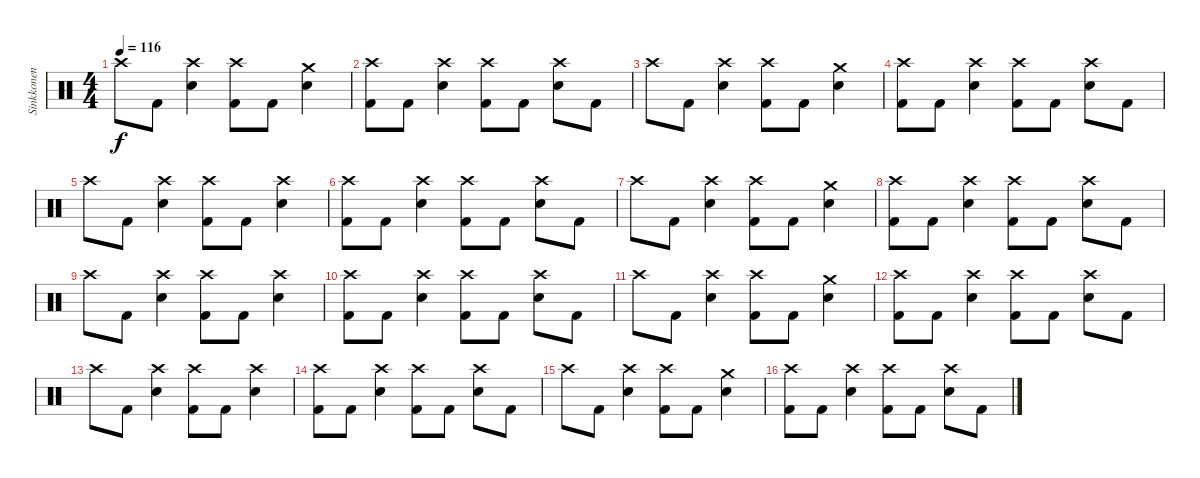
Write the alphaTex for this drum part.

\track ("Sinkkonen" "Sinkkonen") {instrument percussion}
\staff {score}
\articulation defaults
\ts (4 4)
\tempo 116
\clef neutral
\ks c "Crash high (hit)".8{dy f} "Kick (hit) 2".8
("Crash high (hit)" "Snare (hit) 2").4 ("Kick (hit) 2" "Crash high (hit)").8 "Kick (hit) 2".8 ("Crash medium (hit)" "Snare (hit) 2").4 |
("Kick (hit) 2" "Crash high (hit)").8 "Kick (hit) 2".8 ("Crash high (hit)" "Snare (hit) 2").4 ("Kick (hit) 2" "Crash high (hit)").8 "Kick (hit) 2".8 ("Crash high (hit)" "Snare (hit) 2").8 "Kick (hit) 2".8 |
"Crash high (hit)".8 "Kick (hit) 2".8 ("Crash high (hit)" "Snare (hit) 2").4 ("Kick (hit) 2" "Crash high (hit)").8 "Kick (hit) 2".8 ("Crash medium (hit)" "Snare (hit) 2").4 |
("Kick (hit) 2" "Crash high (hit)").8 "Kick (hit) 2".8 ("Crash high (hit)" "Snare (hit) 2").4 ("Kick (hit) 2" "Crash high (hit)").8 "Kick (hit) 2".8 ("Crash high (hit)" "Snare (hit) 2").8 "Kick (hit) 2".8 |
"Crash high (hit)".8 "Kick (hit) 2".8 ("Crash high (hit)" "Snare (hit) 2").4 ("Kick (hit) 2" "Crash high (hit)").8 "Kick (hit) 2".8 ("Crash high (hit)" "Snare (hit) 2").4 |
("Kick (hit) 2" "Crash high (hit)").8 "Kick (hit) 2".8 ("Crash high (hit)" "Snare (hit) 2").4 ("Kick (hit) 2" "Crash high (hit)").8 "Kick (hit) 2".8 ("Crash high (hit)" "Snare (hit) 2").8 "Kick (hit) 2".8 |
"Crash high (hit)".8 "Kick (hit) 2".8 ("Crash high (hit)" "Snare (hit) 2").4 ("Kick (hit) 2" "Crash high (hit)").8 "Kick (hit) 2".8 ("Crash medium (hit)" "Snare (hit) 2").4 |
("Kick (hit) 2" "Crash high (hit)").8 "Kick (hit) 2".8 ("Crash high (hit)" "Snare (hit) 2").4 ("Kick (hit) 2" "Crash high (hit)").8 "Kick (hit) 2".8 ("Crash high (hit)" "Snare (hit) 2").8 "Kick (hit) 2".8 |
"Crash high (hit)".8 "Kick (hit) 2".8 ("Crash high (hit)" "Snare (hit) 2").4 ("Kick (hit) 2" "Crash high (hit)").8 "Kick (hit) 2".8 ("Crash high (hit)" "Snare (hit) 2").4 |
("Kick (hit) 2" "Crash high (hit)").8 "Kick (hit) 2".8 ("Crash high (hit)" "Snare (hit) 2").4 ("Kick (hit) 2" "Crash high (hit)").8 "Kick (hit) 2".8 ("Crash high (hit)" "Snare (hit) 2").8 "Kick (hit) 2".8 |
"Crash high (hit)".8 "Kick (hit) 2".8 ("Crash high (hit)" "Snare (hit) 2").4 ("Kick (hit) 2" "Crash high (hit)").8 "Kick (hit) 2".8 ("Crash medium (hit)" "Snare (hit) 2").4 |
("Kick (hit) 2" "Crash high (hit)").8 "Kick (hit) 2".8 ("Crash high (hit)" "Snare (hit) 2").4 ("Kick (hit) 2" "Crash high (hit)").8 "Kick (hit) 2".8 ("Crash high (hit)" "Snare (hit) 2").8 "Kick (hit) 2".8 |
"Crash high (hit)".8 "Kick (hit) 2".8 ("Crash high (hit)" "Snare (hit) 2").4 ("Kick (hit) 2" "Crash high (hit)").8 "Kick (hit) 2".8 ("Crash high (hit)" "Snare (hit) 2").4 |
("Kick (hit) 2" "Crash high (hit)").8 "Kick (hit) 2".8 ("Crash high (hit)" "Snare (hit) 2").4 ("Kick (hit) 2" "Crash high (hit)").8 "Kick (hit) 2".8 ("Crash high (hit)" "Snare (hit) 2").8 "Kick (hit) 2".8 |
"Crash high (hit)".8 "Kick (hit) 2".8 ("Crash high (hit)" "Snare (hit) 2").4 ("Kick (hit) 2" "Crash high (hit)").8 "Kick (hit) 2".8 ("Crash medium (hit)" "Snare (hit) 2").4 |
("Kick (hit) 2" "Crash high (hit)").8 "Kick (hit) 2".8 ("Crash high (hit)" "Snare (hit) 2").4 ("Kick (hit) 2" "Crash high (hit)").8 "Kick (hit) 2".8 ("Crash high (hit)" "Snare (hit) 2").8 "Kick (hit) 2".8
